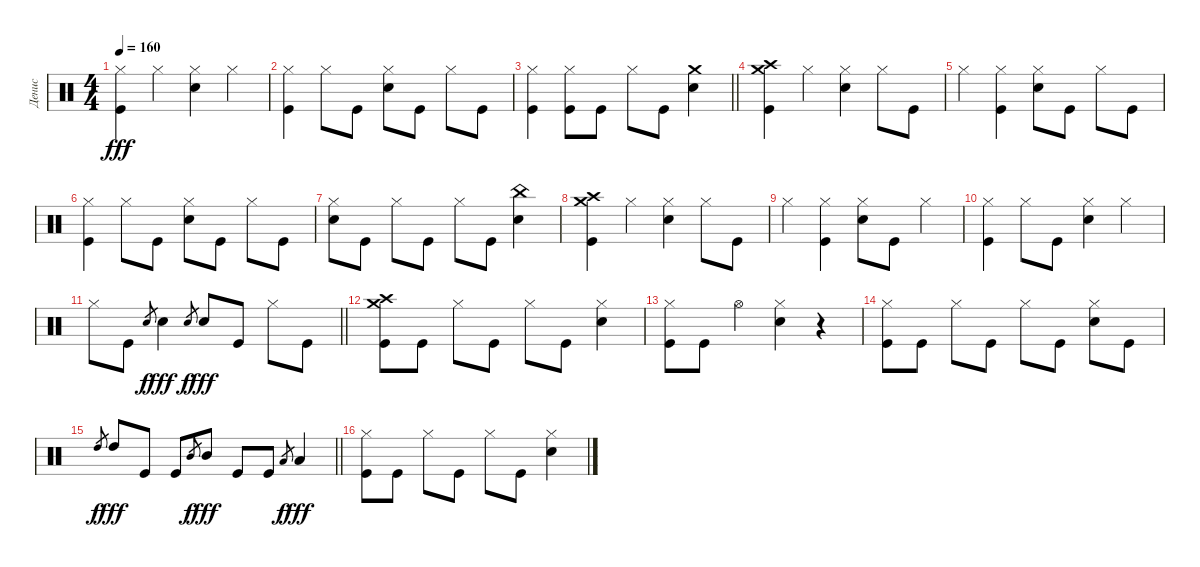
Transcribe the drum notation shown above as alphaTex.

\track ("Денис" "Денис") {instrument percussion}
\staff {score}
\articulation defaults
\ts (4 4)
\tempo 160
\clef neutral
\ks c
("Hi-Hat (closed)" "Kick (hit)").4{dy fff} "Hi-Hat (closed)".4 ("Electric Snare (hit)" "Hi-Hat (closed)").4 "Hi-Hat (closed)".4 |
("Kick (hit)" "Hi-Hat (closed)").4 "Hi-Hat (closed)".8 "Kick (hit)".8 ("Electric Snare (hit)" "Hi-Hat (closed)").8 "Kick (hit)".8 "Hi-Hat (closed)".8 "Kick (hit)".8 |
\barLineRight lightlight
("Hi-Hat (closed)" "Kick (hit)").4 ("Kick (hit)" "Hi-Hat (closed)").8 "Kick (hit)".8 "Hi-Hat (closed)".8 "Kick (hit)".8 ("Electric Snare (hit)" "Crash medium (hit)").4 |
\section ("" "")
("Crash medium (hit)" "Kick (hit)" "Crash high (hit)").4 "Hi-Hat (closed)".4 ("Electric Snare (hit)" "Hi-Hat (closed)").4 "Hi-Hat (closed)".8 "Kick (hit)".8 |
"Hi-Hat (closed)".4 ("Hi-Hat (closed)" "Kick (hit)").4 ("Electric Snare (hit)" "Hi-Hat (closed)").8 "Kick (hit)".8 "Hi-Hat (closed)".8 "Kick (hit)".8 |
("Kick (hit)" "Hi-Hat (closed)").4 "Hi-Hat (closed)".8 "Kick (hit)".8 ("Electric Snare (hit)" "Hi-Hat (closed)").8 "Kick (hit)".8 "Hi-Hat (closed)".8 "Kick (hit)".8 |
("Electric Snare (hit)" "Hi-Hat (closed)").8 "Kick (hit)".8 "Hi-Hat (closed)".8 "Kick (hit)".8 "Hi-Hat (closed)".8 "Kick (hit)".8 ("Electric Snare (hit)" "China (hit)").4 |
("Crash medium (hit)" "Kick (hit)" "Crash high (hit)").4 "Hi-Hat (closed)".4 ("Electric Snare (hit)" "Hi-Hat (closed)").4 "Hi-Hat (closed)".8 "Kick (hit)".8 |
"Hi-Hat (closed)".4 ("Kick (hit)" "Hi-Hat (closed)").4 ("Electric Snare (hit)" "Hi-Hat (closed)").8 "Kick (hit)".8 "Hi-Hat (closed)".4 |
("Hi-Hat (closed)" "Kick (hit)").4 "Hi-Hat (closed)".8 "Kick (hit)".8 ("Electric Snare (hit)" "Hi-Hat (closed)").4 "Hi-Hat (closed)".4 |
\barLineRight lightlight "Hi-Hat (closed)".8 "Kick (hit)".8 "Electric Snare (hit)".8{gr dy f} "Electric Snare (hit)".4{dy fff} "Electric Snare (hit)".8{gr dy f} "Electric Snare (hit)".8{dy fff} "Kick (hit)".8 "Hi-Hat (closed)".8 "Kick (hit)".8
|
\section ("" "")
("Kick (hit)" "Crash medium (hit)" "Crash high (hit)").8 "Kick (hit)".8 "Hi-Hat (closed)".8 "Kick (hit)".8 "Hi-Hat (closed)".8 "Kick (hit)".8 ("Electric Snare (hit)" "Hi-Hat (closed)").4 |
("Kick (hit)" "Hi-Hat (closed)").8 "Kick (hit)".8 "Hi-Hat (open)".4 ("Electric Snare (hit)" "Hi-Hat (closed)").4 r.4 |
("Kick (hit)" "Hi-Hat (closed)").8 "Kick (hit)".8 "Hi-Hat (closed)".8 "Kick (hit)".8 "Hi-Hat (closed)".8 "Kick (hit)".8 ("Electric Snare (hit)" "Hi-Hat (closed)").8 "Kick (hit)".8 |
\barLineRight lightlight "High Tom (hit)".8{gr dy f} "High Tom (hit)".8{dy fff} "Kick (hit)".8 "Kick (hit)".8 "Mid Tom (hit)".8{gr dy f} "Mid Tom (hit)".8{dy fff} "Kick (hit)".8 "Kick (hit)".8 "Low Tom (hit)".8{gr dy f} "Low Tom (hit)".4{dy fff}
|
\section ("" "")
("Kick (hit)" "Hi-Hat (closed)").8 "Kick (hit)".8 "Hi-Hat (closed)".8 "Kick (hit)".8 "Hi-Hat (closed)".8 "Kick (hit)".8 ("Electric Snare (hit)" "Hi-Hat (closed)").4
